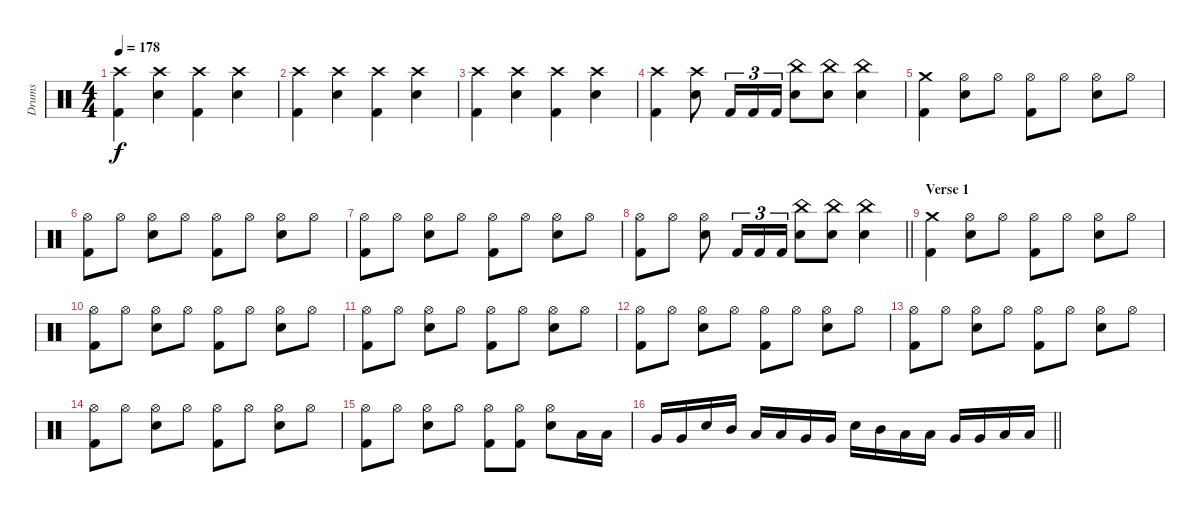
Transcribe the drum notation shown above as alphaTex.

\track ("Drums" "Drums") {instrument percussion}
\staff {score}
\articulation defaults
\ts (4 4)
\tempo 178
\clef neutral
\ks c
("Crash high (hit)" "Kick (hit) 2").4{dy f} ("Crash high (hit)" "Electric Snare (hit)").4 ("Crash high (hit)" "Kick (hit) 2").4 ("Crash high (hit)" "Electric Snare (hit)").4 |
("Crash high (hit)" "Kick (hit) 2").4 ("Crash high (hit)" "Electric Snare (hit)").4 ("Crash high (hit)" "Kick (hit) 2").4 ("Crash high (hit)" "Electric Snare (hit)").4 |
("Crash high (hit)" "Kick (hit) 2").4 ("Crash high (hit)" "Electric Snare (hit)").4 ("Crash high (hit)" "Kick (hit) 2").4 ("Crash high (hit)" "Electric Snare (hit)").4 |
("Crash high (hit)" "Kick (hit) 2").4 ("Crash high (hit)" "Electric Snare (hit)").8 "Kick (hit) 2".16{tu (3 2)} "Kick (hit) 2".16{tu (3 2)} "Kick (hit) 2".16{tu (3 2)} ("China (hit)" "Electric Snare (hit)").8 ("China (hit)" "Electric Snare (hit)").8 ("China (hit)" "Electric Snare (hit)").4 |
("Crash medium (hit)" "Kick (hit) 2").4 ("Hi-Hat (open)" "Electric Snare (hit)").8 "Hi-Hat (open)".8 ("Hi-Hat (open)" "Kick (hit) 2").8 "Hi-Hat (open)".8 ("Hi-Hat (open)" "Electric Snare (hit)").8 "Hi-Hat (open)".8 |
("Hi-Hat (open)" "Kick (hit) 2").8 "Hi-Hat (open)".8 ("Hi-Hat (open)" "Electric Snare (hit)").8 "Hi-Hat (open)".8 ("Hi-Hat (open)" "Kick (hit) 2").8 "Hi-Hat (open)".8 ("Hi-Hat (open)" "Electric Snare (hit)").8 "Hi-Hat (open)".8 |
("Hi-Hat (open)" "Kick (hit) 2").8 "Hi-Hat (open)".8 ("Hi-Hat (open)" "Electric Snare (hit)").8 "Hi-Hat (open)".8 ("Hi-Hat (open)" "Kick (hit) 2").8 "Hi-Hat (open)".8 ("Hi-Hat (open)" "Electric Snare (hit)").8 "Hi-Hat (open)".8 |
\barLineRight lightlight
("Hi-Hat (open)" "Kick (hit) 2").8 "Hi-Hat (open)".8 ("Hi-Hat (open)" "Electric Snare (hit)").8 "Kick (hit) 2".16{tu (3 2)} "Kick (hit) 2".16{tu (3 2)} "Kick (hit) 2".16{tu (3 2)} ("China (hit)" "Electric Snare (hit)").8 ("China (hit)" "Electric Snare (hit)").8 ("China (hit)" "Electric Snare (hit)").4 |
\section ("" "Verse 1")
("Crash medium (hit)" "Kick (hit) 2").4 ("Hi-Hat (open)" "Electric Snare (hit)").8 "Hi-Hat (open)".8 ("Hi-Hat (open)" "Kick (hit) 2").8 "Hi-Hat (open)".8 ("Hi-Hat (open)" "Electric Snare (hit)").8 "Hi-Hat (open)".8 |
("Hi-Hat (open)" "Kick (hit) 2").8 "Hi-Hat (open)".8 ("Hi-Hat (open)" "Electric Snare (hit)").8 "Hi-Hat (open)".8 ("Hi-Hat (open)" "Kick (hit) 2").8 "Hi-Hat (open)".8 ("Hi-Hat (open)" "Electric Snare (hit)").8 "Hi-Hat (open)".8 |
("Hi-Hat (open)" "Kick (hit) 2").8 "Hi-Hat (open)".8 ("Hi-Hat (open)" "Electric Snare (hit)").8 "Hi-Hat (open)".8 ("Hi-Hat (open)" "Kick (hit) 2").8 "Hi-Hat (open)".8 ("Hi-Hat (open)" "Electric Snare (hit)").8 "Hi-Hat (open)".8 |
("Hi-Hat (open)" "Kick (hit) 2").8 "Hi-Hat (open)".8 ("Hi-Hat (open)" "Electric Snare (hit)").8 "Hi-Hat (open)".8 ("Hi-Hat (open)" "Kick (hit) 2").8 "Hi-Hat (open)".8 ("Hi-Hat (open)" "Electric Snare (hit)").8 "Hi-Hat (open)".8 |
("Hi-Hat (open)" "Kick (hit) 2").8 "Hi-Hat (open)".8 ("Hi-Hat (open)" "Electric Snare (hit)").8 "Hi-Hat (open)".8 ("Hi-Hat (open)" "Kick (hit) 2").8 "Hi-Hat (open)".8 ("Hi-Hat (open)" "Electric Snare (hit)").8 "Hi-Hat (open)".8 |
("Hi-Hat (open)" "Kick (hit) 2").8 "Hi-Hat (open)".8 ("Hi-Hat (open)" "Electric Snare (hit)").8 "Hi-Hat (open)".8 ("Hi-Hat (open)" "Kick (hit) 2").8 "Hi-Hat (open)".8 ("Hi-Hat (open)" "Electric Snare (hit)").8 "Hi-Hat (open)".8 |
("Hi-Hat (open)" "Kick (hit) 2").8 "Hi-Hat (open)".8 ("Hi-Hat (open)" "Electric Snare (hit)").8 "Hi-Hat (open)".8 ("Hi-Hat (open)" "Kick (hit) 2").8 ("Hi-Hat (open)" "Kick (hit) 2").8 ("Hi-Hat (open)" "Electric Snare (hit)").8 "Low Tom (hit)".16 "Low Tom (hit)".16 |
\barLineRight lightlight "Very Low Tom (hit)".16 "Very Low Tom (hit)".16 "Electric Snare (hit)".16 "Mid Tom (hit)".16 "Low Tom (hit)".16 "Low Tom (hit)".16 "Very Low Tom (hit)".16 "Very Low Tom (hit)".16 "Electric Snare (hit)".16 "Mid Tom (hit)".16 "Low Tom (hit)".16 "Low Tom (hit)".16 "Very Low Tom (hit)".16 "Very Low Tom (hit)".16 "Low Floor Tom (hit)".16 "Low Floor Tom (hit)".16
